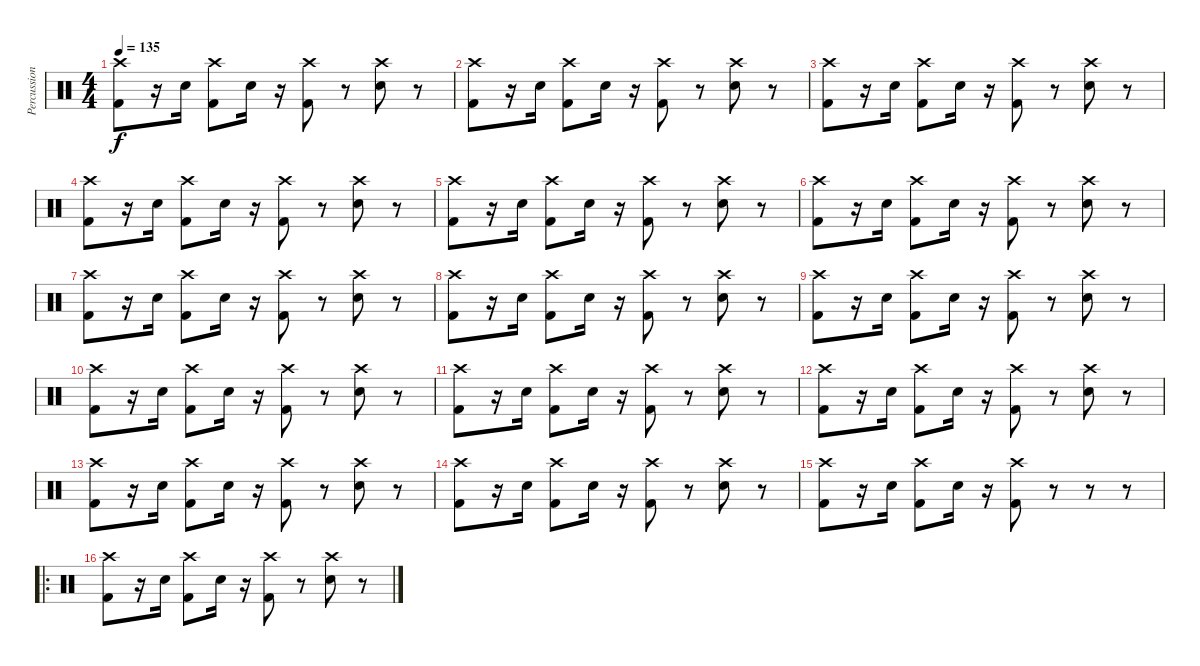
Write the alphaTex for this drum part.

\track ("Percussions" "Percussion") {instrument percussion}
\staff {score}
\articulation defaults
\ts (4 4)
\tempo 135
\clef neutral
\ks c
("Crash high (hit)" "Kick (hit) 2").8{dy f} r.16 "Snare (hit) 2".16 ("Crash high (hit)" "Kick (hit) 2").8 "Snare (hit) 2".16 r.16 ("Crash high (hit)" "Kick (hit) 2").8 r.8 ("Crash high (hit)" "Snare (hit) 2").8 r.8 |
("Crash high (hit)" "Kick (hit) 2").8 r.16 "Snare (hit) 2".16 ("Crash high (hit)" "Kick (hit) 2").8 "Snare (hit) 2".16 r.16 ("Crash high (hit)" "Kick (hit) 2").8 r.8 ("Crash high (hit)" "Snare (hit) 2").8 r.8 |
("Crash high (hit)" "Kick (hit) 2").8 r.16 "Snare (hit) 2".16 ("Crash high (hit)" "Kick (hit) 2").8 "Snare (hit) 2".16 r.16 ("Crash high (hit)" "Kick (hit) 2").8 r.8 ("Crash high (hit)" "Snare (hit) 2").8 r.8 |
("Crash high (hit)" "Kick (hit) 2").8 r.16 "Snare (hit) 2".16 ("Crash high (hit)" "Kick (hit) 2").8 "Snare (hit) 2".16 r.16 ("Crash high (hit)" "Kick (hit) 2").8 r.8 ("Crash high (hit)" "Snare (hit) 2").8 r.8 |
("Crash high (hit)" "Kick (hit) 2").8 r.16 "Snare (hit) 2".16 ("Crash high (hit)" "Kick (hit) 2").8 "Snare (hit) 2".16 r.16 ("Crash high (hit)" "Kick (hit) 2").8 r.8 ("Crash high (hit)" "Snare (hit) 2").8 r.8 |
("Crash high (hit)" "Kick (hit) 2").8 r.16 "Snare (hit) 2".16 ("Crash high (hit)" "Kick (hit) 2").8 "Snare (hit) 2".16 r.16 ("Crash high (hit)" "Kick (hit) 2").8 r.8 ("Crash high (hit)" "Snare (hit) 2").8 r.8 |
("Crash high (hit)" "Kick (hit) 2").8 r.16 "Snare (hit) 2".16 ("Crash high (hit)" "Kick (hit) 2").8 "Snare (hit) 2".16 r.16 ("Crash high (hit)" "Kick (hit) 2").8 r.8 ("Crash high (hit)" "Snare (hit) 2").8 r.8 |
("Crash high (hit)" "Kick (hit) 2").8 r.16 "Snare (hit) 2".16 ("Crash high (hit)" "Kick (hit) 2").8 "Snare (hit) 2".16 r.16 ("Crash high (hit)" "Kick (hit) 2").8 r.8 ("Crash high (hit)" "Snare (hit) 2").8 r.8 |
("Crash high (hit)" "Kick (hit) 2").8 r.16 "Snare (hit) 2".16 ("Crash high (hit)" "Kick (hit) 2").8 "Snare (hit) 2".16 r.16 ("Crash high (hit)" "Kick (hit) 2").8 r.8 ("Crash high (hit)" "Snare (hit) 2").8 r.8 |
("Crash high (hit)" "Kick (hit) 2").8 r.16 "Snare (hit) 2".16 ("Crash high (hit)" "Kick (hit) 2").8 "Snare (hit) 2".16 r.16 ("Crash high (hit)" "Kick (hit) 2").8 r.8 ("Crash high (hit)" "Snare (hit) 2").8 r.8 |
("Crash high (hit)" "Kick (hit) 2").8 r.16 "Snare (hit) 2".16 ("Crash high (hit)" "Kick (hit) 2").8 "Snare (hit) 2".16 r.16 ("Crash high (hit)" "Kick (hit) 2").8 r.8 ("Crash high (hit)" "Snare (hit) 2").8 r.8 |
("Crash high (hit)" "Kick (hit) 2").8 r.16 "Snare (hit) 2".16 ("Crash high (hit)" "Kick (hit) 2").8 "Snare (hit) 2".16 r.16 ("Crash high (hit)" "Kick (hit) 2").8 r.8 ("Crash high (hit)" "Snare (hit) 2").8 r.8 |
("Crash high (hit)" "Kick (hit) 2").8 r.16 "Snare (hit) 2".16 ("Crash high (hit)" "Kick (hit) 2").8 "Snare (hit) 2".16 r.16 ("Crash high (hit)" "Kick (hit) 2").8 r.8 ("Crash high (hit)" "Snare (hit) 2").8 r.8 |
("Crash high (hit)" "Kick (hit) 2").8 r.16 "Snare (hit) 2".16 ("Crash high (hit)" "Kick (hit) 2").8 "Snare (hit) 2".16 r.16 ("Crash high (hit)" "Kick (hit) 2").8 r.8 ("Crash high (hit)" "Snare (hit) 2").8 r.8 |
("Crash high (hit)" "Kick (hit) 2").8 r.16 "Snare (hit) 2".16 ("Crash high (hit)" "Kick (hit) 2").8 "Snare (hit) 2".16 r.16 ("Crash high (hit)" "Kick (hit) 2").8 r.8 r.8 r.8 |
\ro
("Crash high (hit)" "Kick (hit) 2").8 r.16 "Snare (hit) 2".16 ("Crash high (hit)" "Kick (hit) 2").8 "Snare (hit) 2".16 r.16 ("Crash high (hit)" "Kick (hit) 2").8 r.8 ("Crash high (hit)" "Snare (hit) 2").8 r.8
